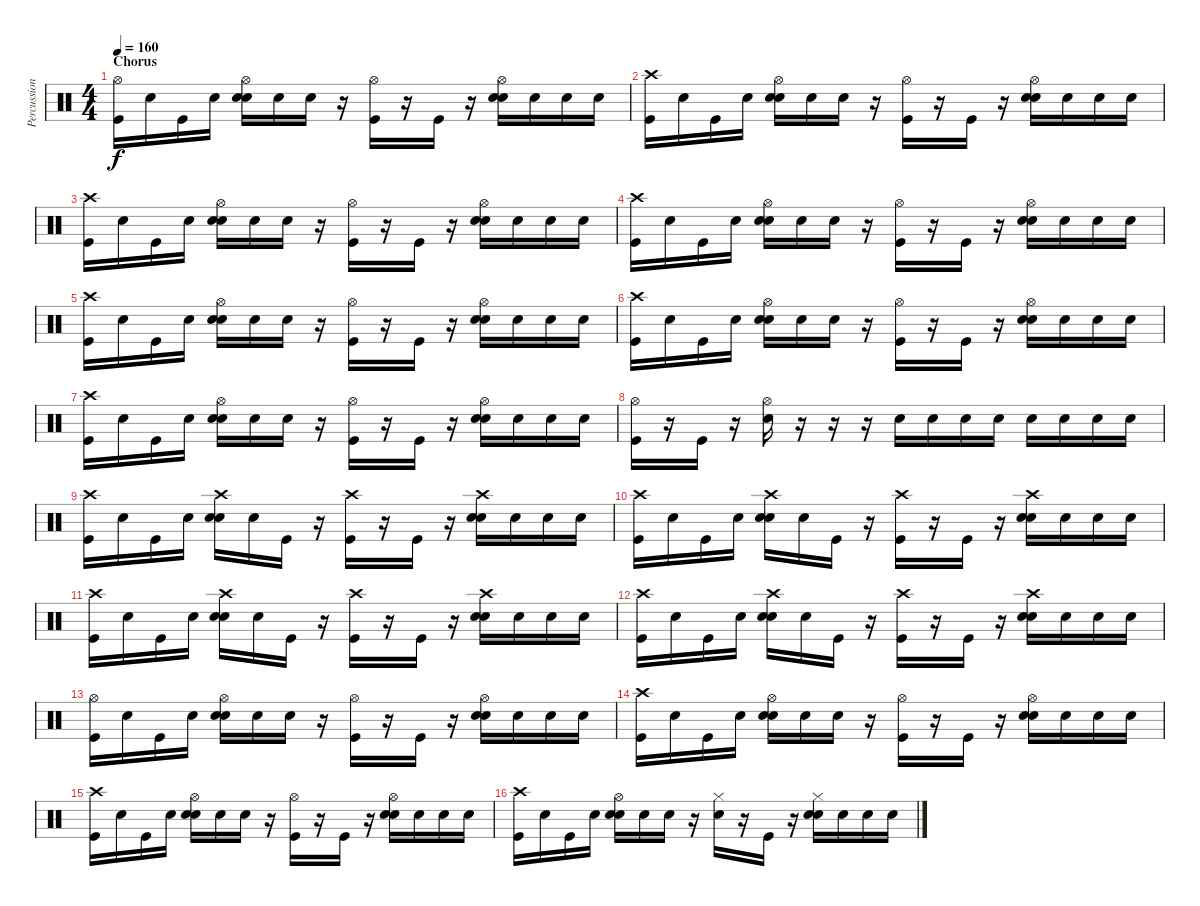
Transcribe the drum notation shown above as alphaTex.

\track ("Percussion" "Percussion") {instrument percussion}
\staff {score}
\articulation defaults
\ts (4 4)
\section ("" "Chorus")
\tempo 160
\clef neutral
\ks c
("Kick (hit)" "Hi-Hat (open)").16{dy f} "Snare (hit)".16 "Kick (hit)".16 "Snare (hit)".16 ("Snare (hit)" "Electric Snare (hit)" "Hi-Hat (open)").16 "Snare (hit)".16 "Snare (hit)".16 r.16 ("Kick (hit)" "Hi-Hat (open)").16 r.16 "Kick (hit)".16 r.16 ("Snare (hit)" "Electric Snare (hit)" "Hi-Hat (open)").16 "Snare (hit)".16 "Snare (hit)".16 "Snare (hit)".16 |
("Kick (hit)" "Crash high (hit)").16 "Snare (hit)".16 "Kick (hit)".16 "Snare (hit)".16 ("Snare (hit)" "Electric Snare (hit)" "Hi-Hat (open)").16 "Snare (hit)".16 "Snare (hit)".16 r.16 ("Kick (hit)" "Hi-Hat (open)").16 r.16 "Kick (hit)".16 r.16 ("Snare (hit)" "Electric Snare (hit)" "Hi-Hat (open)").16 "Snare (hit)".16 "Snare (hit)".16 "Snare (hit)".16 |
("Kick (hit)" "Crash high (hit)").16 "Snare (hit)".16 "Kick (hit)".16 "Snare (hit)".16 ("Snare (hit)" "Electric Snare (hit)" "Hi-Hat (open)").16 "Snare (hit)".16 "Snare (hit)".16 r.16 ("Kick (hit)" "Hi-Hat (open)").16 r.16 "Kick (hit)".16 r.16 ("Snare (hit)" "Electric Snare (hit)" "Hi-Hat (open)").16 "Snare (hit)".16 "Snare (hit)".16 "Snare (hit)".16 |
("Kick (hit)" "Crash high (hit)").16 "Snare (hit)".16 "Kick (hit)".16 "Snare (hit)".16 ("Snare (hit)" "Electric Snare (hit)" "Hi-Hat (open)").16 "Snare (hit)".16 "Snare (hit)".16 r.16 ("Kick (hit)" "Hi-Hat (open)").16 r.16 "Kick (hit)".16 r.16 ("Snare (hit)" "Electric Snare (hit)" "Hi-Hat (open)").16 "Snare (hit)".16 "Snare (hit)".16 "Snare (hit)".16 |
("Kick (hit)" "Crash high (hit)").16 "Snare (hit)".16 "Kick (hit)".16 "Snare (hit)".16 ("Snare (hit)" "Electric Snare (hit)" "Hi-Hat (open)").16 "Snare (hit)".16 "Snare (hit)".16 r.16 ("Kick (hit)" "Hi-Hat (open)").16 r.16 "Kick (hit)".16 r.16 ("Snare (hit)" "Electric Snare (hit)" "Hi-Hat (open)").16 "Snare (hit)".16 "Snare (hit)".16 "Snare (hit)".16 |
("Kick (hit)" "Crash high (hit)").16 "Snare (hit)".16 "Kick (hit)".16 "Snare (hit)".16 ("Snare (hit)" "Electric Snare (hit)" "Hi-Hat (open)").16 "Snare (hit)".16 "Snare (hit)".16 r.16 ("Kick (hit)" "Hi-Hat (open)").16 r.16 "Kick (hit)".16 r.16 ("Snare (hit)" "Electric Snare (hit)" "Hi-Hat (open)").16 "Snare (hit)".16 "Snare (hit)".16 "Snare (hit)".16 |
("Kick (hit)" "Crash high (hit)").16 "Snare (hit)".16 "Kick (hit)".16 "Snare (hit)".16 ("Snare (hit)" "Electric Snare (hit)" "Hi-Hat (open)").16 "Snare (hit)".16 "Snare (hit)".16 r.16 ("Kick (hit)" "Hi-Hat (open)").16 r.16 "Kick (hit)".16 r.16 ("Snare (hit)" "Electric Snare (hit)" "Hi-Hat (open)").16 "Snare (hit)".16 "Snare (hit)".16 "Snare (hit)".16 |
("Kick (hit)" "Hi-Hat (open)").16 r.16 "Kick (hit)".16 r.16 ("Electric Snare (hit)" "Hi-Hat (open)").16 r.16 r.16 r.16 "Electric Snare (hit)".16 "Electric Snare (hit)".16 "Electric Snare (hit)".16 "Electric Snare (hit)".16 "Electric Snare (hit)".16 "Electric Snare (hit)".16 "Electric Snare (hit)".16 "Electric Snare (hit)".16 |
("Kick (hit)" "Crash high (hit)").16 "Snare (hit)".16 "Kick (hit)".16 "Snare (hit)".16 ("Snare (hit)" "Electric Snare (hit)" "Crash high (hit)").16 "Snare (hit)".16 "Kick (hit)".16 r.16 ("Kick (hit)" "Crash high (hit)").16 r.16 "Kick (hit)".16 r.16 ("Snare (hit)" "Electric Snare (hit)" "Crash high (hit)").16 "Snare (hit)".16 "Snare (hit)".16 "Snare (hit)".16 |
("Kick (hit)" "Crash high (hit)").16 "Snare (hit)".16 "Kick (hit)".16 "Snare (hit)".16 ("Snare (hit)" "Electric Snare (hit)" "Crash high (hit)").16 "Snare (hit)".16 "Kick (hit)".16 r.16 ("Kick (hit)" "Crash high (hit)").16 r.16 "Kick (hit)".16 r.16 ("Snare (hit)" "Electric Snare (hit)" "Crash high (hit)").16 "Snare (hit)".16 "Snare (hit)".16 "Snare (hit)".16 |
("Kick (hit)" "Crash high (hit)").16 "Snare (hit)".16 "Kick (hit)".16 "Snare (hit)".16 ("Snare (hit)" "Electric Snare (hit)" "Crash high (hit)").16 "Snare (hit)".16 "Kick (hit)".16 r.16 ("Kick (hit)" "Crash high (hit)").16 r.16 "Kick (hit)".16 r.16 ("Snare (hit)" "Electric Snare (hit)" "Crash high (hit)").16 "Snare (hit)".16 "Snare (hit)".16 "Snare (hit)".16 |
("Kick (hit)" "Crash high (hit)").16 "Snare (hit)".16 "Kick (hit)".16 "Snare (hit)".16 ("Snare (hit)" "Electric Snare (hit)" "Crash high (hit)").16 "Snare (hit)".16 "Kick (hit)".16 r.16 ("Kick (hit)" "Crash high (hit)").16 r.16 "Kick (hit)".16 r.16 ("Snare (hit)" "Electric Snare (hit)" "Crash high (hit)").16 "Snare (hit)".16 "Snare (hit)".16 "Snare (hit)".16 |
("Kick (hit)" "Hi-Hat (open)").16 "Snare (hit)".16 "Kick (hit)".16 "Snare (hit)".16 ("Snare (hit)" "Electric Snare (hit)" "Hi-Hat (open)").16 "Snare (hit)".16 "Snare (hit)".16 r.16 ("Kick (hit)" "Hi-Hat (open)").16 r.16 "Kick (hit)".16 r.16 ("Snare (hit)" "Electric Snare (hit)" "Hi-Hat (open)").16 "Snare (hit)".16 "Snare (hit)".16 "Snare (hit)".16 |
("Kick (hit)" "Crash high (hit)").16 "Snare (hit)".16 "Kick (hit)".16 "Snare (hit)".16 ("Snare (hit)" "Electric Snare (hit)" "Hi-Hat (open)").16 "Snare (hit)".16 "Snare (hit)".16 r.16 ("Kick (hit)" "Hi-Hat (open)").16 r.16 "Kick (hit)".16 r.16 ("Snare (hit)" "Electric Snare (hit)" "Hi-Hat (open)").16 "Snare (hit)".16 "Snare (hit)".16 "Snare (hit)".16 |
("Kick (hit)" "Crash high (hit)").16 "Snare (hit)".16 "Kick (hit)".16 "Snare (hit)".16 ("Snare (hit)" "Electric Snare (hit)" "Hi-Hat (open)").16 "Snare (hit)".16 "Snare (hit)".16 r.16 ("Kick (hit)" "Hi-Hat (open)").16 r.16 "Kick (hit)".16 r.16 ("Snare (hit)" "Electric Snare (hit)" "Hi-Hat (open)").16 "Snare (hit)".16 "Snare (hit)".16 "Snare (hit)".16 |
("Kick (hit)" "Crash high (hit)").16 "Snare (hit)".16 "Kick (hit)".16 "Snare (hit)".16 ("Snare (hit)" "Electric Snare (hit)" "Hi-Hat (open)").16 "Snare (hit)".16 "Snare (hit)".16 r.16 ("Electric Snare (hit)" "Hi-Hat (closed)").16 r.16 "Kick (hit)".16 r.16 ("Snare (hit)" "Electric Snare (hit)" "Hi-Hat (closed)").16 "Snare (hit)".16 "Snare (hit)".16 "Snare (hit)".16
